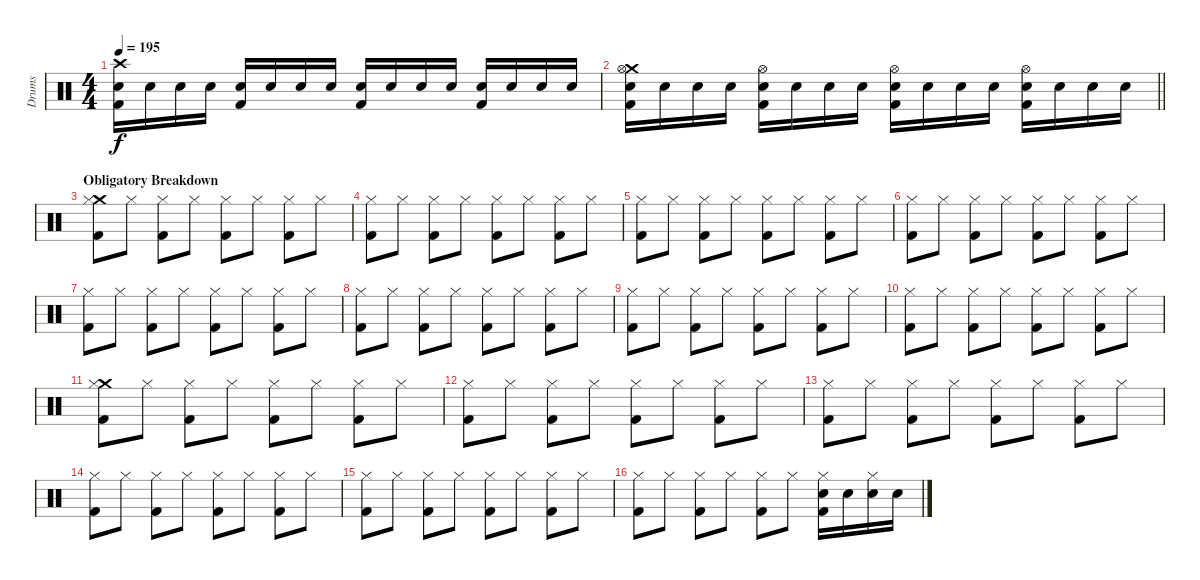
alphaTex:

\track ("Drums" "Drums") {instrument percussion}
\staff {score}
\articulation defaults
\ts (4 4)
\tempo 195
\clef neutral
\ks c
("Crash high (hit)" "Snare (hit) 2" "Kick (hit) 2").16{dy f} "Snare (hit) 2".16 "Snare (hit) 2".16 "Snare (hit) 2".16 ("Snare (hit) 2" "Kick (hit) 2").16 "Snare (hit) 2".16 "Snare (hit) 2".16 "Snare (hit) 2".16 ("Snare (hit) 2" "Kick (hit) 2").16 "Snare (hit) 2".16 "Snare (hit) 2".16 "Snare (hit) 2".16 ("Snare (hit) 2" "Kick (hit) 2").16 "Snare (hit) 2".16 "Snare (hit) 2".16 "Snare (hit) 2".16 |
\barLineRight lightlight
("Crash medium (hit)" "Hi-Hat (open)" "Snare (hit) 2" "Kick (hit) 2").16 "Snare (hit) 2".16 "Snare (hit) 2".16 "Snare (hit) 2".16 ("Hi-Hat (open)" "Snare (hit) 2" "Kick (hit) 2").16 "Snare (hit) 2".16 "Snare (hit) 2".16 "Snare (hit) 2".16 ("Hi-Hat (open)" "Snare (hit) 2" "Kick (hit) 2").16 "Snare (hit) 2".16 "Snare (hit) 2".16 "Snare (hit) 2".16 ("Hi-Hat (open)" "Snare (hit) 2" "Kick (hit) 2").16 "Snare (hit) 2".16 "Snare (hit) 2".16 "Snare (hit) 2".16 |
\section ("" "Obligatory Breakdown")
("Crash medium (hit)" "Hi-Hat (closed)" "Kick (hit) 2").8 "Hi-Hat (closed)".8 ("Hi-Hat (closed)" "Kick (hit) 2").8 "Hi-Hat (closed)".8 ("Hi-Hat (closed)" "Kick (hit) 2").8 "Hi-Hat (closed)".8 ("Hi-Hat (closed)" "Kick (hit) 2").8 "Hi-Hat (closed)".8 |
("Hi-Hat (closed)" "Kick (hit) 2").8 "Hi-Hat (closed)".8 ("Hi-Hat (closed)" "Kick (hit) 2").8 "Hi-Hat (closed)".8 ("Hi-Hat (closed)" "Kick (hit) 2").8 "Hi-Hat (closed)".8 ("Hi-Hat (closed)" "Kick (hit) 2").8 "Hi-Hat (closed)".8 |
("Hi-Hat (closed)" "Kick (hit) 2").8 "Hi-Hat (closed)".8 ("Hi-Hat (closed)" "Kick (hit) 2").8 "Hi-Hat (closed)".8 ("Hi-Hat (closed)" "Kick (hit) 2").8 "Hi-Hat (closed)".8 ("Hi-Hat (closed)" "Kick (hit) 2").8 "Hi-Hat (closed)".8 |
("Hi-Hat (closed)" "Kick (hit) 2").8 "Hi-Hat (closed)".8 ("Hi-Hat (closed)" "Kick (hit) 2").8 "Hi-Hat (closed)".8 ("Hi-Hat (closed)" "Kick (hit) 2").8 "Hi-Hat (closed)".8 ("Hi-Hat (closed)" "Kick (hit) 2").8 "Hi-Hat (closed)".8 |
("Hi-Hat (closed)" "Kick (hit) 2").8 "Hi-Hat (closed)".8 ("Hi-Hat (closed)" "Kick (hit) 2").8 "Hi-Hat (closed)".8 ("Hi-Hat (closed)" "Kick (hit) 2").8 "Hi-Hat (closed)".8 ("Hi-Hat (closed)" "Kick (hit) 2").8 "Hi-Hat (closed)".8 |
("Hi-Hat (closed)" "Kick (hit) 2").8 "Hi-Hat (closed)".8 ("Hi-Hat (closed)" "Kick (hit) 2").8 "Hi-Hat (closed)".8 ("Hi-Hat (closed)" "Kick (hit) 2").8 "Hi-Hat (closed)".8 ("Hi-Hat (closed)" "Kick (hit) 2").8 "Hi-Hat (closed)".8 |
("Hi-Hat (closed)" "Kick (hit) 2").8 "Hi-Hat (closed)".8 ("Hi-Hat (closed)" "Kick (hit) 2").8 "Hi-Hat (closed)".8 ("Hi-Hat (closed)" "Kick (hit) 2").8 "Hi-Hat (closed)".8 ("Hi-Hat (closed)" "Kick (hit) 2").8 "Hi-Hat (closed)".8 |
("Hi-Hat (closed)" "Kick (hit) 2").8 "Hi-Hat (closed)".8 ("Hi-Hat (closed)" "Kick (hit) 2").8 "Hi-Hat (closed)".8 ("Hi-Hat (closed)" "Kick (hit) 2").8 "Hi-Hat (closed)".8 ("Hi-Hat (closed)" "Kick (hit) 2").8 "Hi-Hat (closed)".8 |
("Crash medium (hit)" "Hi-Hat (closed)" "Kick (hit) 2").8 "Hi-Hat (closed)".8 ("Hi-Hat (closed)" "Kick (hit) 2").8 "Hi-Hat (closed)".8 ("Hi-Hat (closed)" "Kick (hit) 2").8 "Hi-Hat (closed)".8 ("Hi-Hat (closed)" "Kick (hit) 2").8 "Hi-Hat (closed)".8 |
("Hi-Hat (closed)" "Kick (hit) 2").8 "Hi-Hat (closed)".8 ("Hi-Hat (closed)" "Kick (hit) 2").8 "Hi-Hat (closed)".8 ("Hi-Hat (closed)" "Kick (hit) 2").8 "Hi-Hat (closed)".8 ("Hi-Hat (closed)" "Kick (hit) 2").8 "Hi-Hat (closed)".8 |
("Hi-Hat (closed)" "Kick (hit) 2").8 "Hi-Hat (closed)".8 ("Hi-Hat (closed)" "Kick (hit) 2").8 "Hi-Hat (closed)".8 ("Hi-Hat (closed)" "Kick (hit) 2").8 "Hi-Hat (closed)".8 ("Hi-Hat (closed)" "Kick (hit) 2").8 "Hi-Hat (closed)".8 |
("Hi-Hat (closed)" "Kick (hit) 2").8 "Hi-Hat (closed)".8 ("Hi-Hat (closed)" "Kick (hit) 2").8 "Hi-Hat (closed)".8 ("Hi-Hat (closed)" "Kick (hit) 2").8 "Hi-Hat (closed)".8 ("Hi-Hat (closed)" "Kick (hit) 2").8 "Hi-Hat (closed)".8 |
("Hi-Hat (closed)" "Kick (hit) 2").8 "Hi-Hat (closed)".8 ("Hi-Hat (closed)" "Kick (hit) 2").8 "Hi-Hat (closed)".8 ("Hi-Hat (closed)" "Kick (hit) 2").8 "Hi-Hat (closed)".8 ("Hi-Hat (closed)" "Kick (hit) 2").8 "Hi-Hat (closed)".8 |
("Hi-Hat (closed)" "Kick (hit) 2").8 "Hi-Hat (closed)".8 ("Hi-Hat (closed)" "Kick (hit) 2").8 "Hi-Hat (closed)".8 ("Hi-Hat (closed)" "Kick (hit) 2").8 "Hi-Hat (closed)".8 ("Hi-Hat (closed)" "Snare (hit) 2" "Kick (hit) 2").16 "Snare (hit) 2".16 ("Hi-Hat (closed)" "Snare (hit) 2").16 "Snare (hit) 2".16
